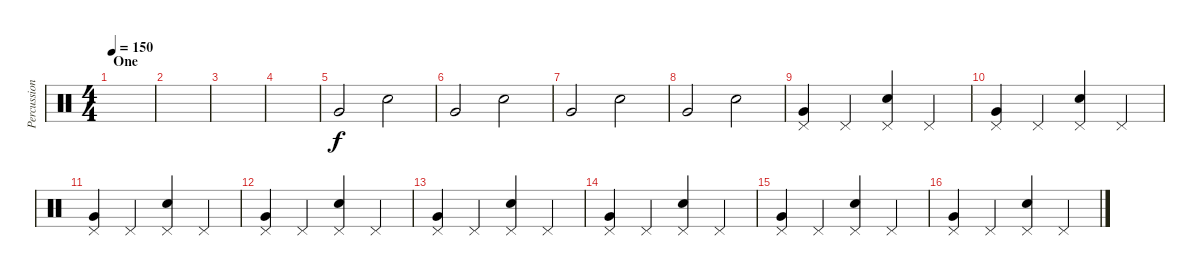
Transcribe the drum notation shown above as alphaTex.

\track ("Percussion" "Percussion") {instrument percussion}
\staff {score}
\articulation defaults
\ts (4 4)
\section ("" "One")
\tempo 150
\clef neutral
\ks c
|
|
|
|
"Very Low Tom (hit)".2 "Snare (hit) 2".2 |
"Very Low Tom (hit)".2 "Snare (hit) 2".2 |
"Very Low Tom (hit)".2 "Snare (hit) 2".2 |
"Very Low Tom (hit)".2 "Snare (hit) 2".2 |
("Very Low Tom (hit)" "Pedal Hi-Hat (hit)").4 "Pedal Hi-Hat (hit)".4 ("Snare (hit) 2" "Pedal Hi-Hat (hit)").4 "Pedal Hi-Hat (hit)".4 |
("Very Low Tom (hit)" "Pedal Hi-Hat (hit)").4 "Pedal Hi-Hat (hit)".4 ("Snare (hit) 2" "Pedal Hi-Hat (hit)").4 "Pedal Hi-Hat (hit)".4 |
("Very Low Tom (hit)" "Pedal Hi-Hat (hit)").4 "Pedal Hi-Hat (hit)".4 ("Snare (hit) 2" "Pedal Hi-Hat (hit)").4 "Pedal Hi-Hat (hit)".4 |
("Very Low Tom (hit)" "Pedal Hi-Hat (hit)").4 "Pedal Hi-Hat (hit)".4 ("Snare (hit) 2" "Pedal Hi-Hat (hit)").4 "Pedal Hi-Hat (hit)".4 |
("Very Low Tom (hit)" "Pedal Hi-Hat (hit)").4 "Pedal Hi-Hat (hit)".4 ("Snare (hit) 2" "Pedal Hi-Hat (hit)").4 "Pedal Hi-Hat (hit)".4 |
("Very Low Tom (hit)" "Pedal Hi-Hat (hit)").4 "Pedal Hi-Hat (hit)".4 ("Snare (hit) 2" "Pedal Hi-Hat (hit)").4 "Pedal Hi-Hat (hit)".4 |
("Very Low Tom (hit)" "Pedal Hi-Hat (hit)").4 "Pedal Hi-Hat (hit)".4 ("Snare (hit) 2" "Pedal Hi-Hat (hit)").4 "Pedal Hi-Hat (hit)".4 |
("Very Low Tom (hit)" "Pedal Hi-Hat (hit)").4 "Pedal Hi-Hat (hit)".4 ("Snare (hit) 2" "Pedal Hi-Hat (hit)").4 "Pedal Hi-Hat (hit)".4
